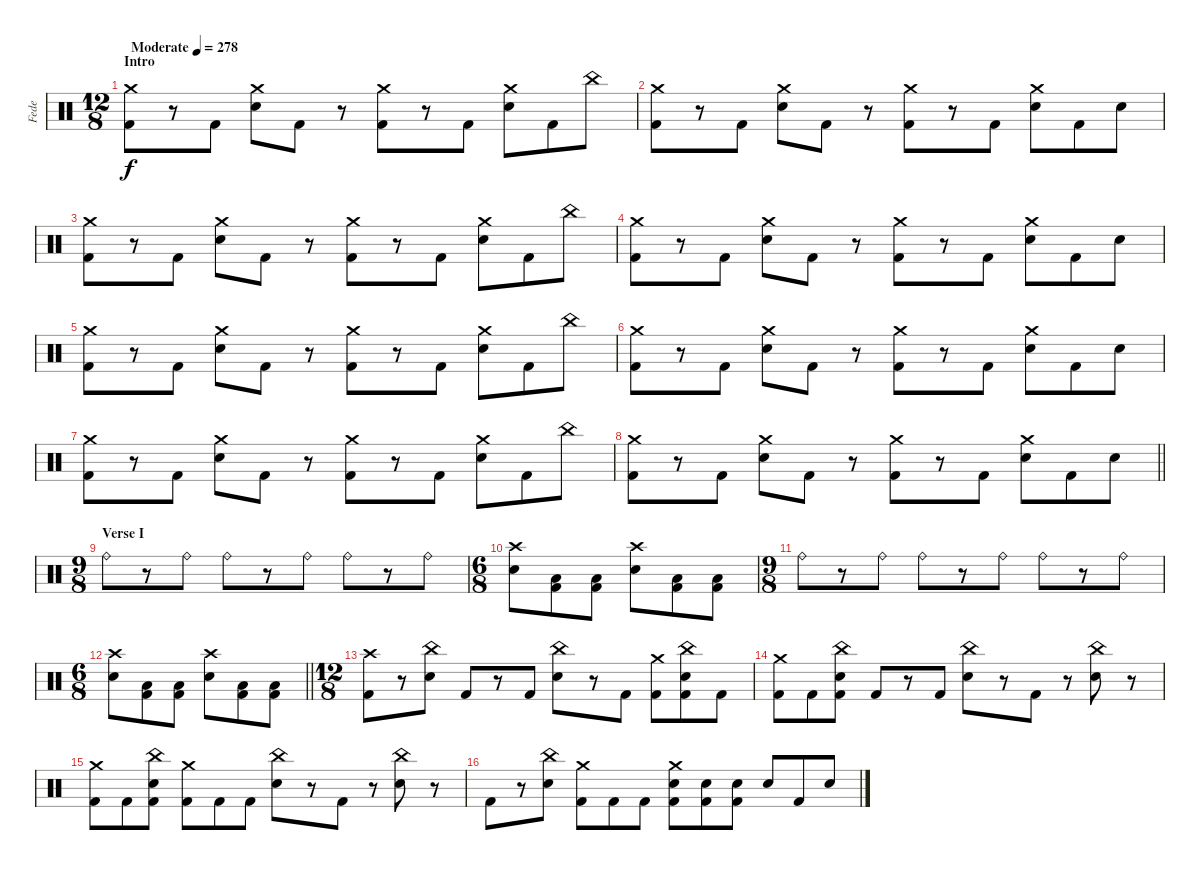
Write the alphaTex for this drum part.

\track ("Fede" "Fede") {instrument percussion}
\staff {score}
\articulation defaults
\ts (12 8)
\section ("" "Intro")
\tempo (278 "Moderate")
\clef neutral
\ks c
("Crash medium (hit)" "Kick (hit) 2").8{dy f} r.8 "Kick (hit) 2".8 ("Crash medium (hit)" "Snare (hit) 2").8 "Kick (hit) 2".8 r.8 ("Crash medium (hit)" "Kick (hit) 2").8 r.8 "Kick (hit) 2".8 ("Crash medium (hit)" "Snare (hit) 2").8 "Kick (hit) 2".8 "China (hit)".8 |
("Crash medium (hit)" "Kick (hit) 2").8 r.8 "Kick (hit) 2".8 ("Crash medium (hit)" "Snare (hit) 2").8 "Kick (hit) 2".8 r.8 ("Crash medium (hit)" "Kick (hit) 2").8 r.8 "Kick (hit) 2".8 ("Crash medium (hit)" "Snare (hit) 2").8 "Kick (hit) 2".8 "Snare (hit) 2".8 |
("Crash medium (hit)" "Kick (hit) 2").8 r.8 "Kick (hit) 2".8 ("Crash medium (hit)" "Snare (hit) 2").8 "Kick (hit) 2".8 r.8 ("Crash medium (hit)" "Kick (hit) 2").8 r.8 "Kick (hit) 2".8 ("Crash medium (hit)" "Snare (hit) 2").8 "Kick (hit) 2".8 "China (hit)".8 |
("Crash medium (hit)" "Kick (hit) 2").8 r.8 "Kick (hit) 2".8 ("Crash medium (hit)" "Snare (hit) 2").8 "Kick (hit) 2".8 r.8 ("Crash medium (hit)" "Kick (hit) 2").8 r.8 "Kick (hit) 2".8 ("Crash medium (hit)" "Snare (hit) 2").8 "Kick (hit) 2".8 "Snare (hit) 2".8 |
("Crash medium (hit)" "Kick (hit) 2").8 r.8 "Kick (hit) 2".8 ("Crash medium (hit)" "Snare (hit) 2").8 "Kick (hit) 2".8 r.8 ("Crash medium (hit)" "Kick (hit) 2").8 r.8 "Kick (hit) 2".8 ("Crash medium (hit)" "Snare (hit) 2").8 "Kick (hit) 2".8 "China (hit)".8 |
("Crash medium (hit)" "Kick (hit) 2").8 r.8 "Kick (hit) 2".8 ("Crash medium (hit)" "Snare (hit) 2").8 "Kick (hit) 2".8 r.8 ("Crash medium (hit)" "Kick (hit) 2").8 r.8 "Kick (hit) 2".8 ("Crash medium (hit)" "Snare (hit) 2").8 "Kick (hit) 2".8 "Snare (hit) 2".8 |
("Crash medium (hit)" "Kick (hit) 2").8 r.8 "Kick (hit) 2".8 ("Crash medium (hit)" "Snare (hit) 2").8 "Kick (hit) 2".8 r.8 ("Crash medium (hit)" "Kick (hit) 2").8 r.8 "Kick (hit) 2".8 ("Crash medium (hit)" "Snare (hit) 2").8 "Kick (hit) 2".8 "China (hit)".8 |
\barLineRight lightlight
("Crash medium (hit)" "Kick (hit) 2").8 r.8 "Kick (hit) 2".8 ("Crash medium (hit)" "Snare (hit) 2").8 "Kick (hit) 2".8 r.8 ("Crash medium (hit)" "Kick (hit) 2").8 r.8 "Kick (hit) 2".8 ("Crash medium (hit)" "Snare (hit) 2").8 "Kick (hit) 2".8 "Snare (hit) 2".8 |
\ts (9 8)
\section ("" "Verse I")
"Ride (bell)".8 r.8 "Ride (bell)".8 "Ride (bell)".8 r.8 "Ride (bell)".8 "Ride (bell)".8 r.8 "Ride (bell)".8 |
\ts (6 8)
("Crash high (hit)" "Snare (hit) 2").8 ("Low Tom (hit)" "Kick (hit) 2").8 ("Low Tom (hit)" "Kick (hit) 2").8 ("Crash high (hit)" "Snare (hit) 2").8 ("Low Tom (hit)" "Kick (hit) 2").8 ("Low Tom (hit)" "Kick (hit) 2").8 |
\ts (9 8)
"Ride (bell)".8 r.8 "Ride (bell)".8 "Ride (bell)".8 r.8 "Ride (bell)".8 "Ride (bell)".8 r.8 "Ride (bell)".8 |
\ts (6 8)
\barLineRight lightlight
("Crash high (hit)" "Snare (hit) 2").8 ("Low Tom (hit)" "Kick (hit) 2").8 ("Low Tom (hit)" "Kick (hit) 2").8 ("Crash high (hit)" "Snare (hit) 2").8 ("Low Tom (hit)" "Kick (hit) 2").8 ("Low Tom (hit)" "Kick (hit) 2").8 |
\ts (12 8)
("Crash high (hit)" "Kick (hit) 2").8 r.8 ("China (hit)" "Snare (hit) 2").8 "Kick (hit) 2".8 r.8 "Kick (hit) 2".8 ("China (hit)" "Snare (hit) 2").8 r.8 "Kick (hit) 2".8 ("Crash medium (hit)" "Kick (hit) 2").8 ("China (hit)" "Snare (hit) 2" "Kick (hit) 2").8 "Kick (hit) 2".8 |
("Crash medium (hit)" "Kick (hit) 2").8 "Kick (hit) 2".8 ("China (hit)" "Snare (hit) 2" "Kick (hit) 2").8 "Kick (hit) 2".8 r.8 "Kick (hit) 2".8 ("China (hit)" "Snare (hit) 2").8 r.8 "Kick (hit) 2".8 r.8 ("China (hit)" "Snare (hit) 2").8 r.8 |
("Crash medium (hit)" "Kick (hit) 2").8 "Kick (hit) 2".8 ("China (hit)" "Snare (hit) 2" "Kick (hit) 2").8 ("Crash medium (hit)" "Kick (hit) 2").8 "Kick (hit) 2".8 "Kick (hit) 2".8 ("China (hit)" "Snare (hit) 2").8 r.8 "Kick (hit) 2".8 r.8 ("China (hit)" "Snare (hit) 2").8 r.8 |
"Kick (hit) 2".8 r.8 ("China (hit)" "Snare (hit) 2").8 ("Crash medium (hit)" "Kick (hit) 2").8 "Kick (hit) 2".8 "Kick (hit) 2".8 ("Crash medium (hit)" "Snare (hit) 2" "Kick (hit) 2").8 ("Snare (hit) 2" "Kick (hit) 2").8 ("Snare (hit) 2" "Kick (hit) 2").8 "Snare (hit) 2".8 "Kick (hit) 2".8 "Snare (hit) 2".8
